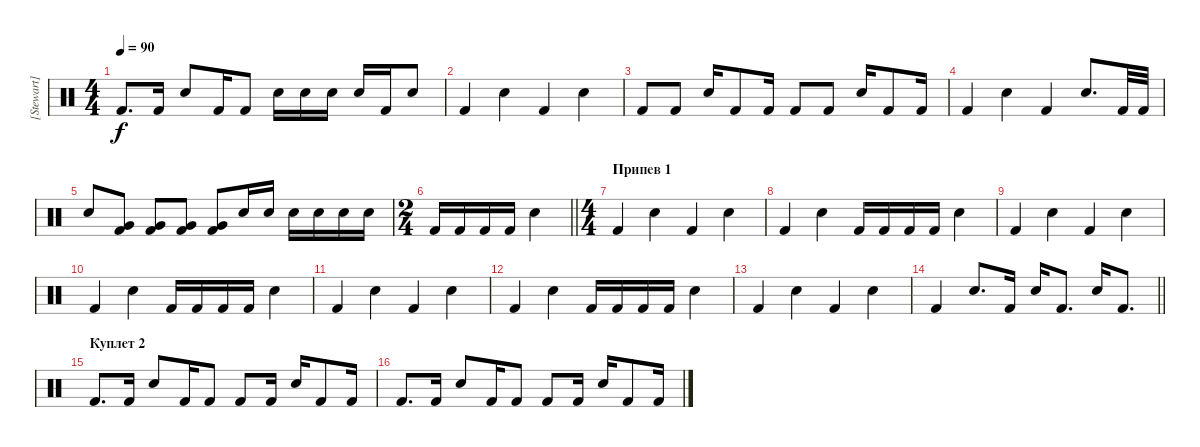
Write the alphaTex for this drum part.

\track ("[Stewart] (drums)" "[Stewart] ") {instrument percussion}
\staff {score}
\articulation defaults
\ts (4 4)
\tempo 90
\clef neutral
\ks c "Kick (hit) 2".8{d dy f} "Kick (hit) 2".16 "Snare (hit) 2".8 "Kick (hit) 2".16 "Kick (hit) 2".8 "Snare (hit) 2".16 "Snare (hit) 2".16 "Snare (hit) 2".16 "Snare (hit) 2".16 "Kick (hit) 2".16 "Snare (hit) 2".8
|
"Kick (hit) 2".4 "Snare (hit) 2".4 "Kick (hit) 2".4 "Snare (hit) 2".4 |
"Kick (hit) 2".8 "Kick (hit) 2".8 "Snare (hit) 2".16 "Kick (hit) 2".8 "Kick (hit) 2".16 "Kick (hit) 2".8 "Kick (hit) 2".8 "Snare (hit) 2".16 "Kick (hit) 2".8 "Kick (hit) 2".16 |
"Kick (hit) 2".4 "Snare (hit) 2".4 "Kick (hit) 2".4 "Snare (hit) 2".8{d} "Kick (hit) 2".32 "Kick (hit) 2".32 |
"Snare (hit) 2".8 ("Kick (hit) 2" "Very Low Tom (hit)").8 ("Kick (hit) 2" "Very Low Tom (hit)").8 ("Kick (hit) 2" "Very Low Tom (hit)").8 ("Kick (hit) 2" "Very Low Tom (hit)").8 "Snare (hit) 2".16 "Snare (hit) 2".16 "Snare (hit) 2".16 "Snare (hit) 2".16 "Snare (hit) 2".16 "Snare (hit) 2".16 |
\ts (2 4)
\barLineRight lightlight "Kick (hit) 2".16 "Kick (hit) 2".16 "Kick (hit) 2".16 "Kick (hit) 2".16 "Snare (hit) 2".4
|
\ts (4 4)
\section ("" "Припев 1")
"Kick (hit) 2".4 "Snare (hit) 2".4 "Kick (hit) 2".4 "Snare (hit) 2".4 |
"Kick (hit) 2".4 "Snare (hit) 2".4 "Kick (hit) 2".16 "Kick (hit) 2".16 "Kick (hit) 2".16 "Kick (hit) 2".16 "Snare (hit) 2".4 |
"Kick (hit) 2".4 "Snare (hit) 2".4 "Kick (hit) 2".4 "Snare (hit) 2".4 |
"Kick (hit) 2".4 "Snare (hit) 2".4 "Kick (hit) 2".16 "Kick (hit) 2".16 "Kick (hit) 2".16 "Kick (hit) 2".16 "Snare (hit) 2".4 |
"Kick (hit) 2".4 "Snare (hit) 2".4 "Kick (hit) 2".4 "Snare (hit) 2".4 |
"Kick (hit) 2".4 "Snare (hit) 2".4 "Kick (hit) 2".16 "Kick (hit) 2".16 "Kick (hit) 2".16 "Kick (hit) 2".16 "Snare (hit) 2".4 |
"Kick (hit) 2".4 "Snare (hit) 2".4 "Kick (hit) 2".4 "Snare (hit) 2".4 |
\barLineRight lightlight "Kick (hit) 2".4 "Snare (hit) 2".8{d} "Kick (hit) 2".16 "Snare (hit) 2".16 "Kick (hit) 2".8{d} "Snare (hit) 2".16 "Kick (hit) 2".8{d}
|
\section ("" "Куплет 2")
"Kick (hit) 2".8{d} "Kick (hit) 2".16 "Snare (hit) 2".8 "Kick (hit) 2".16 "Kick (hit) 2".8 "Kick (hit) 2".8 "Kick (hit) 2".16 "Snare (hit) 2".16 "Kick (hit) 2".8 "Kick (hit) 2".16 |
"Kick (hit) 2".8{d} "Kick (hit) 2".16 "Snare (hit) 2".8 "Kick (hit) 2".16 "Kick (hit) 2".8 "Kick (hit) 2".8 "Kick (hit) 2".16 "Snare (hit) 2".16 "Kick (hit) 2".8 "Kick (hit) 2".16
